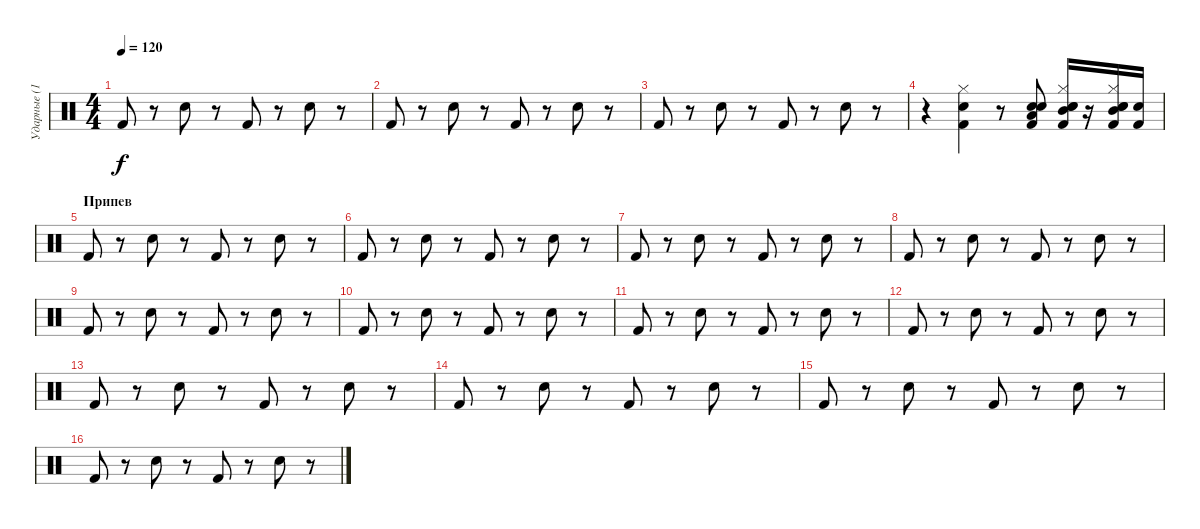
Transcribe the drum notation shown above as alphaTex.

\track ("Ударные (12,36-залп) " "Ударные (1") {instrument percussion}
\staff {score}
\articulation defaults
\ts (4 4)
\tempo 120
\clef neutral
\ks aminor "Kick (hit) 2".8{dy f}
r.8 "Snare (hit) 2".8 r.8 "Kick (hit) 2".8 r.8 "Snare (hit) 2".8 r.8 |
"Kick (hit) 2".8 r.8 "Snare (hit) 2".8 r.8 "Kick (hit) 2".8 r.8 "Snare (hit) 2".8 r.8 |
"Kick (hit) 2".8 r.8 "Snare (hit) 2".8 r.8 "Kick (hit) 2".8 r.8 "Snare (hit) 2".8 r.8 |
r.4 ("Kick (hit) 2" "Hi-Hat (closed)" "Snare (hit) 2").4 r.8 ("Kick (hit) 2" "Snare (hit) 2" "Electric Snare (hit)" "Low Floor Tom (hit)").8 ("Kick (hit) 2" "Hi-Hat (closed)" "Electric Snare (hit)" "Snare (hit) 2" "Mid Tom (hit)").16 r.16 ("Hi-Hat (closed)" "Kick (hit) 2" "Electric Snare (hit)" "Snare (hit) 2" "Mid Tom (hit)").16 ("Snare (hit) 2" "Kick (hit) 2").16 |
\section ("" "Припев")
"Kick (hit) 2".8 r.8 "Snare (hit) 2".8 r.8 "Kick (hit) 2".8 r.8 "Snare (hit) 2".8 r.8 |
"Kick (hit) 2".8 r.8 "Snare (hit) 2".8 r.8 "Kick (hit) 2".8 r.8 "Snare (hit) 2".8 r.8 |
"Kick (hit) 2".8 r.8 "Snare (hit) 2".8 r.8 "Kick (hit) 2".8 r.8 "Snare (hit) 2".8 r.8 |
"Kick (hit) 2".8 r.8 "Snare (hit) 2".8 r.8 "Kick (hit) 2".8 r.8 "Snare (hit) 2".8 r.8 |
"Kick (hit) 2".8 r.8 "Snare (hit) 2".8 r.8 "Kick (hit) 2".8 r.8 "Snare (hit) 2".8 r.8 |
"Kick (hit) 2".8 r.8 "Snare (hit) 2".8 r.8 "Kick (hit) 2".8 r.8 "Snare (hit) 2".8 r.8 |
"Kick (hit) 2".8 r.8 "Snare (hit) 2".8 r.8 "Kick (hit) 2".8 r.8 "Snare (hit) 2".8 r.8 |
"Kick (hit) 2".8 r.8 "Snare (hit) 2".8 r.8 "Kick (hit) 2".8 r.8 "Snare (hit) 2".8 r.8 |
"Kick (hit) 2".8 r.8 "Snare (hit) 2".8 r.8 "Kick (hit) 2".8 r.8 "Snare (hit) 2".8 r.8 |
"Kick (hit) 2".8 r.8 "Snare (hit) 2".8 r.8 "Kick (hit) 2".8 r.8 "Snare (hit) 2".8 r.8 |
"Kick (hit) 2".8 r.8 "Snare (hit) 2".8 r.8 "Kick (hit) 2".8 r.8 "Snare (hit) 2".8 r.8 |
"Kick (hit) 2".8 r.8 "Snare (hit) 2".8 r.8 "Kick (hit) 2".8 r.8 "Snare (hit) 2".8 r.8
